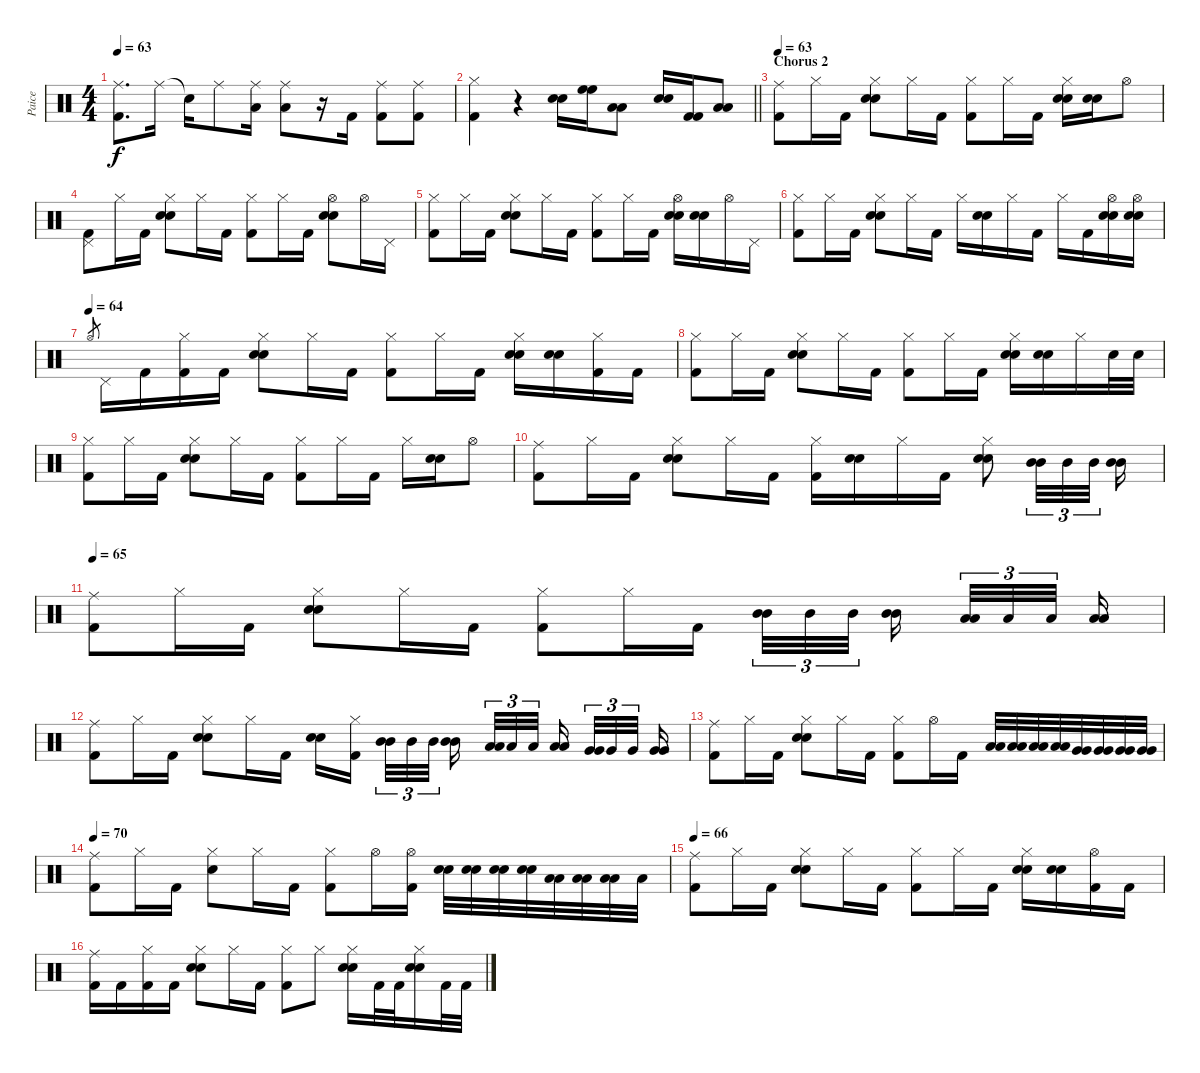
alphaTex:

\track ("Paice" "Paice") {instrument percussion}
\staff {score}
\articulation defaults
\ts (4 4)
\tempo 63
\clef neutral
\ks c
("Ride (middle)" "Kick (hit) 2").8{d dy f} "Ride (middle)".16 "Snare (hit)"{t}.16 "Ride (middle)".8 ("Ride (middle)" "Low Tom (hit)").16 ("Ride (middle)" "Low Tom (hit)").8 r.16 "Kick (hit) 2".16 ("Ride (middle)" "Kick (hit) 2").8 ("Ride (middle)" "Kick (hit) 2").8 |
\barLineRight lightlight
("Hi-Hat (closed)" "Kick (hit) 2").4 r.4 ("Electric Snare (hit)" "Electric Snare (hit)").16 ("High Floor Tom (hit)" "High Floor Tom (hit)").16 ("Low Tom (hit)" "Low Tom (hit)").8 ("Electric Snare (hit)" "Electric Snare (hit)").16 ("Kick (hit) 2" "Kick (hit) 2").16 ("Low Tom (hit)" "Low Tom (hit)").8 |
\section ("" "Chorus 2")
\tempo 63
("Ride (middle)" "Kick (hit) 2").8 "Hi-Hat (closed)".16 "Kick (hit) 2".16 ("Hi-Hat (closed)" "Electric Snare (hit)" "Electric Snare (hit)").8 "Hi-Hat (closed)".16 "Kick (hit) 2".16 ("Hi-Hat (closed)" "Kick (hit) 2").8 "Hi-Hat (closed)".16 "Kick (hit) 2".16 ("Hi-Hat (closed)" "Electric Snare (hit)" "Electric Snare (hit)").16 ("Electric Snare (hit)" "Electric Snare (hit)").16 "Hi-Hat (open)".8 |
("Pedal Hi-Hat (hit)" "Kick (hit) 2").8 "Hi-Hat (closed)".16 "Kick (hit) 2".16 ("Hi-Hat (closed)" "Electric Snare (hit)" "Electric Snare (hit)").8 "Hi-Hat (closed)".16 "Kick (hit) 2".16 ("Hi-Hat (closed)" "Kick (hit) 2").8 "Hi-Hat (closed)".16 "Kick (hit) 2".16 ("Hi-Hat (open)" "Electric Snare (hit)" "Electric Snare (hit)").8 "Hi-Hat (open)".16 "Pedal Hi-Hat (hit)".16 |
("Hi-Hat (closed)" "Kick (hit) 2").8 "Hi-Hat (closed)".16 "Kick (hit) 2".16 ("Hi-Hat (closed)" "Electric Snare (hit)" "Electric Snare (hit)").8 "Hi-Hat (closed)".16 "Kick (hit) 2".16 ("Hi-Hat (closed)" "Kick (hit) 2").8 "Hi-Hat (closed)".16 "Kick (hit) 2".16 ("Hi-Hat (open)" "Electric Snare (hit)" "Electric Snare (hit)").16 ("Electric Snare (hit)" "Electric Snare (hit)").16 "Hi-Hat (open)".16 "Pedal Hi-Hat (hit)".16 |
("Hi-Hat (closed)" "Kick (hit) 2").8 "Hi-Hat (closed)".16 "Kick (hit) 2".16 ("Hi-Hat (closed)" "Electric Snare (hit)" "Electric Snare (hit)").8 "Hi-Hat (closed)".16 "Kick (hit) 2".16 "Hi-Hat (closed)".16 ("Electric Snare (hit)" "Electric Snare (hit)").16 "Hi-Hat (closed)".16 "Kick (hit) 2".16 "Hi-Hat (closed)".16 "Kick (hit) 2".16 ("Hi-Hat (open)" "Electric Snare (hit)" "Electric Snare (hit)").16 ("Hi-Hat (open)" "Electric Snare (hit)" "Electric Snare (hit)").16 |
\tempo (64)
"Hi-Hat (open)".8{gr} "Pedal Hi-Hat (hit)".16 "Kick (hit) 2".16 ("Hi-Hat (closed)" "Kick (hit) 2").16 "Kick (hit) 2".16 ("Hi-Hat (closed)" "Electric Snare (hit)" "Electric Snare (hit)").8 "Hi-Hat (closed)".16 "Kick (hit) 2".16 ("Hi-Hat (closed)" "Kick (hit) 2").8 "Hi-Hat (closed)".16 "Kick (hit) 2".16 ("Hi-Hat (closed)" "Electric Snare (hit)" "Electric Snare (hit)").16 ("Electric Snare (hit)" "Electric Snare (hit)").16 ("Hi-Hat (closed)" "Kick (hit) 2").16 "Kick (hit) 2".16 |
("Hi-Hat (closed)" "Kick (hit) 2").8 "Hi-Hat (closed)".16 "Kick (hit) 2".16 ("Hi-Hat (closed)" "Electric Snare (hit)" "Electric Snare (hit)").8 "Hi-Hat (closed)".16 "Kick (hit) 2".16 ("Hi-Hat (closed)" "Kick (hit) 2").8 "Hi-Hat (closed)".16 "Kick (hit) 2".16 ("Hi-Hat (closed)" "Electric Snare (hit)" "Electric Snare (hit)").16 ("Electric Snare (hit)" "Electric Snare (hit)").16 "Hi-Hat (closed)".16 "Electric Snare (hit)".32 "Electric Snare (hit)".32 |
("Hi-Hat (closed)" "Kick (hit) 2").8 "Hi-Hat (closed)".16 "Kick (hit) 2".16 ("Hi-Hat (closed)" "Electric Snare (hit)" "Electric Snare (hit)").8 "Hi-Hat (closed)".16 "Kick (hit) 2".16 ("Hi-Hat (closed)" "Kick (hit) 2").8 "Hi-Hat (closed)".16 "Kick (hit) 2".16 "Hi-Hat (closed)".16 ("Electric Snare (hit)" "Electric Snare (hit)").16 "Hi-Hat (open)".8 |
("Ride (middle)" "Kick (hit) 2").8 "Hi-Hat (closed)".16 "Kick (hit) 2".16 ("Hi-Hat (closed)" "Electric Snare (hit)" "Electric Snare (hit)").8 "Hi-Hat (closed)".16 "Kick (hit) 2".16 ("Hi-Hat (closed)" "Kick (hit) 2").16 ("Electric Snare (hit)" "Electric Snare (hit)").16 "Hi-Hat (closed)".16 "Kick (hit) 2".16 ("Hi-Hat (closed)" "Electric Snare (hit)" "Electric Snare (hit)").8 ("Mid Tom (hit)" "Mid Tom (hit)").32{tu (3 2)} "Mid Tom (hit)".32{tu (3 2)} "Mid Tom (hit)".32{tu (3 2) beam splitsecondary} ("Mid Tom (hit)" "Mid Tom (hit)").16 |
\tempo 65
("Ride (middle)" "Kick (hit) 2").8 "Hi-Hat (closed)".16 "Kick (hit) 2".16 ("Hi-Hat (closed)" "Electric Snare (hit)" "Electric Snare (hit)").8 "Hi-Hat (closed)".16 "Kick (hit) 2".16 ("Hi-Hat (closed)" "Kick (hit) 2").8 "Hi-Hat (closed)".16 "Kick (hit) 2".16 ("Mid Tom (hit)" "Mid Tom (hit)").32{tu (3 2)} "Mid Tom (hit)".32{tu (3 2)} "Mid Tom (hit)".32{tu (3 2) beam splitsecondary} ("Mid Tom (hit)" "Mid Tom (hit)").16{beam splitsecondary} ("Low Tom (hit)" "Low Tom (hit)").32{tu (3 2)} "Low Tom (hit)".32{tu (3 2)} "Low Tom (hit)".32{tu (3 2) beam splitsecondary} ("Low Tom (hit)" "Low Tom (hit)").16 |
("Ride (middle)" "Kick (hit) 2").8 "Hi-Hat (closed)".16 "Kick (hit) 2".16 ("Hi-Hat (closed)" "Electric Snare (hit)" "Electric Snare (hit)").8 "Hi-Hat (closed)".16 "Kick (hit) 2".16 ("Electric Snare (hit)" "Electric Snare (hit)").16 ("Hi-Hat (closed)" "Kick (hit) 2").16{beam splitsecondary} ("Mid Tom (hit)" "Mid Tom (hit)").32{tu (3 2)} "Mid Tom (hit)".32{tu (3 2)} "Mid Tom (hit)".32{tu (3 2) beam splitsecondary} ("Mid Tom (hit)" "Mid Tom (hit)").16 ("Low Tom (hit)" "Low Tom (hit)").32{tu (3 2)} "Low Tom (hit)".32{tu (3 2)} "Low Tom (hit)".32{tu (3 2) beam splitsecondary} ("Low Tom (hit)" "Low Tom (hit)").16{beam splitsecondary} ("Very Low Tom (hit)" "Very Low Tom (hit)").32{tu (3 2)} "Very Low Tom (hit)".32{tu (3 2)} "Very Low Tom (hit)".32{tu (3 2) beam splitsecondary} ("Very Low Tom (hit)" "Very Low Tom (hit)").16 |
("Ride (middle)" "Kick (hit) 2").8 "Hi-Hat (closed)".16 "Kick (hit) 2".16 ("Hi-Hat (closed)" "Electric Snare (hit)" "Electric Snare (hit)").8 "Hi-Hat (closed)".16 "Kick (hit) 2".16 ("Hi-Hat (closed)" "Kick (hit) 2").8 "Hi-Hat (open)".16 "Kick (hit) 2".16 ("Low Tom (hit)" "Low Tom (hit)").32 ("Low Tom (hit)" "Low Tom (hit)").32 ("Low Tom (hit)" "Low Tom (hit)").32 ("Low Tom (hit)" "Low Tom (hit)").32 ("Very Low Tom (hit)" "Very Low Tom (hit)").32 ("Very Low Tom (hit)" "Very Low Tom (hit)").32 ("Very Low Tom (hit)" "Very Low Tom (hit)").32 ("Very Low Tom (hit)" "Very Low Tom (hit)").32 |
\tempo 70
("Ride (middle)" "Kick (hit) 2").8 "Hi-Hat (closed)".16 "Kick (hit) 2".16 ("Hi-Hat (closed)" "Snare (hit) 2").8 "Hi-Hat (closed)".16 "Kick (hit) 2".16 ("Hi-Hat (closed)" "Kick (hit) 2").8 "Hi-Hat (open)".16 ("Hi-Hat (open)" "Kick (hit) 2").16 ("Electric Snare (hit)" "Electric Snare (hit)").32 ("Electric Snare (hit)" "Electric Snare (hit)").32 ("Electric Snare (hit)" "Electric Snare (hit)").32 ("Electric Snare (hit)" "Electric Snare (hit)").32 ("Low Tom (hit)" "Low Tom (hit)").32 ("Low Tom (hit)" "Low Tom (hit)").32 ("Low Tom (hit)" "Low Tom (hit)").32 "Low Tom (hit)".32 |
\tempo 65
\tempo 66
("Ride (middle)" "Kick (hit) 2").8 "Hi-Hat (closed)".16 "Kick (hit) 2".16 ("Hi-Hat (closed)" "Electric Snare (hit)" "Electric Snare (hit)").8 "Hi-Hat (closed)".16 "Kick (hit) 2".16 ("Hi-Hat (closed)" "Kick (hit) 2").8 "Hi-Hat (closed)".16 "Kick (hit) 2".16 ("Hi-Hat (closed)" "Electric Snare (hit)" "Electric Snare (hit)").16 ("Electric Snare (hit)" "Electric Snare (hit)").16 ("Hi-Hat (open)" "Kick (hit) 2").16 "Kick (hit) 2".16 |
("Ride (middle)" "Kick (hit) 2").16 "Kick (hit) 2".16 ("Hi-Hat (closed)" "Kick (hit) 2").16 "Kick (hit) 2".16 ("Hi-Hat (closed)" "Electric Snare (hit)" "Electric Snare (hit)").8 "Hi-Hat (closed)".16 "Kick (hit) 2".16 ("Hi-Hat (closed)" "Kick (hit) 2").8 "Hi-Hat (closed)".8 ("Hi-Hat (closed)" "Electric Snare (hit)" "Electric Snare (hit)").16 "Kick (hit) 2".32 "Kick (hit) 2".32 ("Hi-Hat (closed)" "Electric Snare (hit)" "Electric Snare (hit)").16 "Kick (hit) 2".32 "Kick (hit) 2".32
